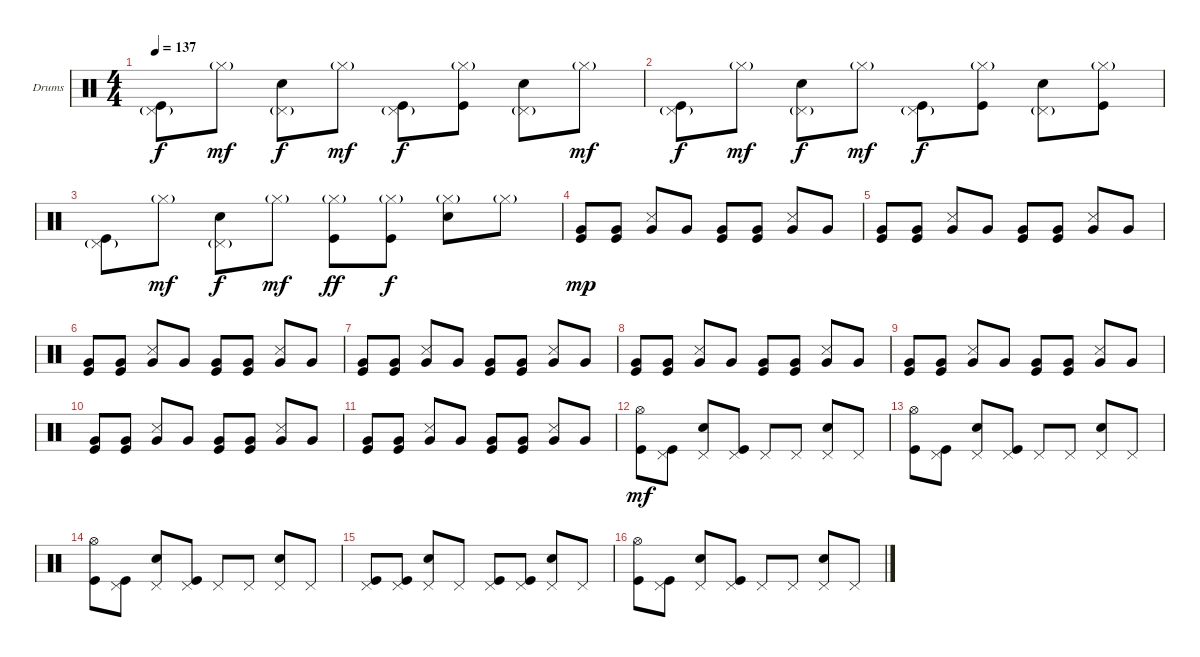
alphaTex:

\bracketExtendMode groupsimilarinstruments
\firstSystemTrackNameOrientation horizontal
\otherSystemsTrackNameOrientation horizontal
\track ("Drumkit (Christoph)" "Drums") {instrument percussion}
\staff {score}
\articulation defaults
\ts (4 4)
\tempo 137
\clef neutral
\ks c
("Pedal Hi-Hat (hit)"{g} "Kick (hit)").8{dy f} "Hi-Hat (closed)"{g}.8{dy mf} ("Pedal Hi-Hat (hit)"{g} "Snare (hit) 2").8{dy f} "Hi-Hat (closed)"{g}.8{dy mf} ("Pedal Hi-Hat (hit)"{g} "Kick (hit)").8{dy f} ("Hi-Hat (closed)"{g} "Kick (hit)").8 ("Pedal Hi-Hat (hit)"{g} "Snare (hit) 2").8 "Hi-Hat (closed)"{g}.8{dy mf} |
("Pedal Hi-Hat (hit)"{g} "Kick (hit)").8{dy f} "Hi-Hat (closed)"{g}.8{dy mf} ("Pedal Hi-Hat (hit)"{g} "Snare (hit) 2").8{dy f} "Hi-Hat (closed)"{g}.8{dy mf} ("Pedal Hi-Hat (hit)"{g} "Kick (hit)").8{dy f} ("Hi-Hat (closed)"{g} "Kick (hit)").8 ("Pedal Hi-Hat (hit)"{g} "Snare (hit) 2").8 ("Hi-Hat (closed)"{g} "Kick (hit)").8 |
("Pedal Hi-Hat (hit)"{g} "Kick (hit)").8 "Hi-Hat (closed)"{g}.8{dy mf} ("Pedal Hi-Hat (hit)"{g} "Snare (hit) 2").8{dy f} "Hi-Hat (closed)"{g}.8{dy mf} ("Hi-Hat (closed)"{g} "Kick (hit)").8{dy ff} ("Hi-Hat (closed)"{g} "Kick (hit)").8{dy f} ("Hi-Hat (closed)"{g} "Snare (hit) 2").8 "Hi-Hat (closed)"{g}.8 |
("Very Low Tom (hit)" "Kick (hit)").8{dy mp} ("Very Low Tom (hit)" "Kick (hit)").8 ("Snare (side stick) 3" "Very Low Tom (hit)").8 "Very Low Tom (hit)".8 ("Very Low Tom (hit)" "Kick (hit)").8 ("Very Low Tom (hit)" "Kick (hit)").8 ("Snare (side stick) 3" "Very Low Tom (hit)").8 "Very Low Tom (hit)".8 |
("Very Low Tom (hit)" "Kick (hit)").8 ("Very Low Tom (hit)" "Kick (hit)").8 ("Snare (side stick) 3" "Very Low Tom (hit)").8 "Very Low Tom (hit)".8 ("Very Low Tom (hit)" "Kick (hit)").8 ("Very Low Tom (hit)" "Kick (hit)").8 ("Snare (side stick) 3" "Very Low Tom (hit)").8 "Very Low Tom (hit)".8 |
("Very Low Tom (hit)" "Kick (hit)").8 ("Very Low Tom (hit)" "Kick (hit)").8 ("Snare (side stick) 3" "Very Low Tom (hit)").8 "Very Low Tom (hit)".8 ("Very Low Tom (hit)" "Kick (hit)").8 ("Very Low Tom (hit)" "Kick (hit)").8 ("Snare (side stick) 3" "Very Low Tom (hit)").8 "Very Low Tom (hit)".8 |
("Very Low Tom (hit)" "Kick (hit)").8 ("Very Low Tom (hit)" "Kick (hit)").8 ("Snare (side stick) 3" "Very Low Tom (hit)").8 "Very Low Tom (hit)".8 ("Very Low Tom (hit)" "Kick (hit)").8 ("Very Low Tom (hit)" "Kick (hit)").8 ("Snare (side stick) 3" "Very Low Tom (hit)").8 "Very Low Tom (hit)".8 |
("Very Low Tom (hit)" "Kick (hit)").8 ("Very Low Tom (hit)" "Kick (hit)").8 ("Snare (side stick) 3" "Very Low Tom (hit)").8 "Very Low Tom (hit)".8 ("Very Low Tom (hit)" "Kick (hit)").8 ("Very Low Tom (hit)" "Kick (hit)").8 ("Snare (side stick) 3" "Very Low Tom (hit)").8 "Very Low Tom (hit)".8 |
("Very Low Tom (hit)" "Kick (hit)").8 ("Very Low Tom (hit)" "Kick (hit)").8 ("Snare (side stick) 3" "Very Low Tom (hit)").8 "Very Low Tom (hit)".8 ("Very Low Tom (hit)" "Kick (hit)").8 ("Very Low Tom (hit)" "Kick (hit)").8 ("Snare (side stick) 3" "Very Low Tom (hit)").8 "Very Low Tom (hit)".8 |
("Very Low Tom (hit)" "Kick (hit)").8 ("Very Low Tom (hit)" "Kick (hit)").8 ("Snare (side stick) 3" "Very Low Tom (hit)").8 "Very Low Tom (hit)".8 ("Very Low Tom (hit)" "Kick (hit)").8 ("Very Low Tom (hit)" "Kick (hit)").8 ("Snare (side stick) 3" "Very Low Tom (hit)").8 "Very Low Tom (hit)".8 |
("Very Low Tom (hit)" "Kick (hit)").8 ("Very Low Tom (hit)" "Kick (hit)").8 ("Snare (side stick) 3" "Very Low Tom (hit)").8 "Very Low Tom (hit)".8 ("Very Low Tom (hit)" "Kick (hit)").8 ("Very Low Tom (hit)" "Kick (hit)").8 ("Snare (side stick) 3" "Very Low Tom (hit)").8 "Very Low Tom (hit)".8 |
("Hi-Hat (open)" "Kick (hit)").8{dy mf} ("Pedal Hi-Hat (hit)" "Kick (hit)").8 ("Pedal Hi-Hat (hit)" "Snare (hit) 2").8 ("Pedal Hi-Hat (hit)" "Kick (hit)").8 "Pedal Hi-Hat (hit)".8 "Pedal Hi-Hat (hit)".8 ("Pedal Hi-Hat (hit)" "Snare (hit) 2").8 "Pedal Hi-Hat (hit)".8 |
("Hi-Hat (open)" "Kick (hit)").8 ("Pedal Hi-Hat (hit)" "Kick (hit)").8 ("Pedal Hi-Hat (hit)" "Snare (hit) 2").8 ("Pedal Hi-Hat (hit)" "Kick (hit)").8 "Pedal Hi-Hat (hit)".8 "Pedal Hi-Hat (hit)".8 ("Pedal Hi-Hat (hit)" "Snare (hit) 2").8 "Pedal Hi-Hat (hit)".8 |
("Hi-Hat (open)" "Kick (hit)").8 ("Pedal Hi-Hat (hit)" "Kick (hit)").8 ("Pedal Hi-Hat (hit)" "Snare (hit) 2").8 ("Pedal Hi-Hat (hit)" "Kick (hit)").8 "Pedal Hi-Hat (hit)".8 "Pedal Hi-Hat (hit)".8 ("Pedal Hi-Hat (hit)" "Snare (hit) 2").8 "Pedal Hi-Hat (hit)".8 |
("Pedal Hi-Hat (hit)" "Kick (hit)").8 ("Pedal Hi-Hat (hit)" "Kick (hit)").8 ("Pedal Hi-Hat (hit)" "Snare (hit) 2").8 "Pedal Hi-Hat (hit)".8 ("Pedal Hi-Hat (hit)" "Kick (hit)").8 ("Pedal Hi-Hat (hit)" "Kick (hit)").8 ("Pedal Hi-Hat (hit)" "Snare (hit) 2").8 "Pedal Hi-Hat (hit)".8 |
("Hi-Hat (open)" "Kick (hit)").8 ("Pedal Hi-Hat (hit)" "Kick (hit)").8 ("Pedal Hi-Hat (hit)" "Snare (hit) 2").8 ("Pedal Hi-Hat (hit)" "Kick (hit)").8 "Pedal Hi-Hat (hit)".8 "Pedal Hi-Hat (hit)".8 ("Pedal Hi-Hat (hit)" "Snare (hit) 2").8 "Pedal Hi-Hat (hit)".8
